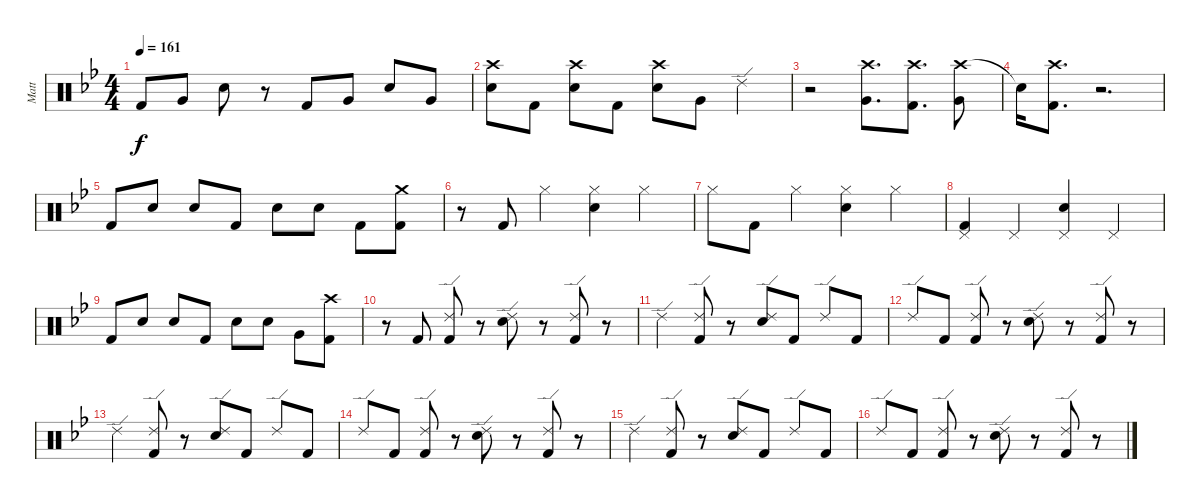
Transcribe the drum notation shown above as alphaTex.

\track ("Matt" "Matt") {instrument percussion}
\staff {score}
\articulation defaults
\ts (4 4)
\tempo 161
\clef neutral
\ks bb "Kick (hit) 2".8{dy f} "Very Low Tom (hit)".8 "Snare (hit) 2".8
r.8 "Kick (hit) 2".8 "Very Low Tom (hit)".8 "Snare (hit) 2".8 "Very Low Tom (hit)".8 |
("Crash high (hit)" "Snare (hit) 2").8 "Kick (hit) 2".8 ("Crash high (hit)" "Snare (hit) 2").8 "Kick (hit) 2".8 ("Crash high (hit)" "Snare (hit) 2").8 "Very Low Tom (hit)".8 "Ride (edge) 2".4 |
r.2 ("Crash high (hit)" "Very Low Tom (hit)").8{d} ("Crash high (hit)" "Kick (hit) 2").8{d} ("Crash high (hit)" "Very Low Tom (hit)").8 |
"Snare (hit)"{t}.16 ("Crash high (hit)" "Kick (hit) 2").8{d} r.2{d} |
"Kick (hit) 2".8 "Snare (hit) 2".8 "Snare (hit) 2".8 "Kick (hit) 2".8 "Snare (hit) 2".8 "Snare (hit) 2".8 "Kick (hit) 2".8 ("Crash medium (hit)" "Kick (hit) 2").8 |
r.8 "Kick (hit) 2".8 "Hi-Hat (closed)".4 ("Hi-Hat (closed)" "Snare (hit) 2").4 "Hi-Hat (closed)".4 |
"Hi-Hat (closed)".8 "Kick (hit) 2".8 "Hi-Hat (closed)".4 ("Hi-Hat (closed)" "Snare (hit) 2").4 "Hi-Hat (closed)".4 |
("Pedal Hi-Hat (hit)" "Kick (hit) 2").4 "Pedal Hi-Hat (hit)".4 ("Pedal Hi-Hat (hit)" "Snare (hit) 2").4 "Pedal Hi-Hat (hit)".4 |
"Kick (hit) 2".8 "Snare (hit) 2".8 "Snare (hit) 2".8 "Kick (hit) 2".8 "Snare (hit) 2".8 "Snare (hit) 2".8 "Very Low Tom (hit)".8 ("Crash high (hit)" "Kick (hit) 2").8 |
r.8 "Kick (hit) 2".8 ("Ride (edge) 2" "Kick (hit) 2").8 r.8 ("Ride (edge) 2" "Snare (hit) 2").8 r.8 ("Ride (edge) 2" "Kick (hit) 2").8 r.8 |
"Ride (edge) 2".4 ("Ride (edge) 2" "Kick (hit) 2").8 r.8 ("Ride (edge) 2" "Snare (hit) 2").8 "Kick (hit) 2".8 "Ride (edge) 2".8 "Kick (hit) 2".8 |
"Ride (edge) 2".8 "Kick (hit) 2".8 ("Ride (edge) 2" "Kick (hit) 2").8 r.8 ("Ride (edge) 2" "Snare (hit) 2").8 r.8 ("Ride (edge) 2" "Kick (hit) 2").8 r.8 |
"Ride (edge) 2".4 ("Ride (edge) 2" "Kick (hit) 2").8 r.8 ("Ride (edge) 2" "Snare (hit) 2").8 "Kick (hit) 2".8 "Ride (edge) 2".8 "Kick (hit) 2".8 |
"Ride (edge) 2".8 "Kick (hit) 2".8 ("Ride (edge) 2" "Kick (hit) 2").8 r.8 ("Ride (edge) 2" "Snare (hit) 2").8 r.8 ("Ride (edge) 2" "Kick (hit) 2").8 r.8 |
"Ride (edge) 2".4 ("Ride (edge) 2" "Kick (hit) 2").8 r.8 ("Ride (edge) 2" "Snare (hit) 2").8 "Kick (hit) 2".8 "Ride (edge) 2".8 "Kick (hit) 2".8 |
"Ride (edge) 2".8 "Kick (hit) 2".8 ("Ride (edge) 2" "Kick (hit) 2").8 r.8 ("Ride (edge) 2" "Snare (hit) 2").8 r.8 ("Ride (edge) 2" "Kick (hit) 2").8 r.8
